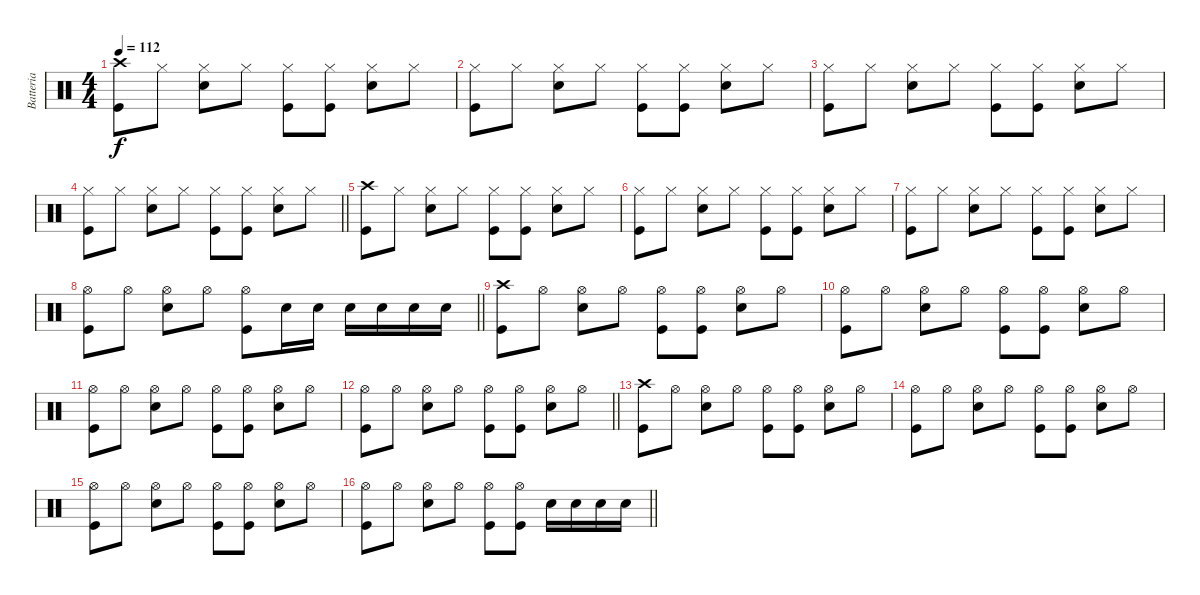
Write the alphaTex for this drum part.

\track ("Batteria" "Batteria") {instrument percussion}
\staff {score}
\articulation defaults
\ts (4 4)
\tempo 112
\clef neutral
\ks c
("Crash high (hit)" "Kick (hit)").8{dy f} "Hi-Hat (closed)".8 ("Snare (hit) 2" "Hi-Hat (closed)").8 "Hi-Hat (closed)".8 ("Kick (hit)" "Hi-Hat (closed)").8 ("Kick (hit)" "Hi-Hat (closed)").8 ("Snare (hit) 2" "Hi-Hat (closed)").8 "Hi-Hat (closed)".8 |
("Hi-Hat (closed)" "Kick (hit)").8 "Hi-Hat (closed)".8 ("Snare (hit) 2" "Hi-Hat (closed)").8 "Hi-Hat (closed)".8 ("Kick (hit)" "Hi-Hat (closed)").8 ("Kick (hit)" "Hi-Hat (closed)").8 ("Snare (hit) 2" "Hi-Hat (closed)").8 "Hi-Hat (closed)".8 |
("Hi-Hat (closed)" "Kick (hit)").8 "Hi-Hat (closed)".8 ("Snare (hit) 2" "Hi-Hat (closed)").8 "Hi-Hat (closed)".8 ("Kick (hit)" "Hi-Hat (closed)").8 ("Kick (hit)" "Hi-Hat (closed)").8 ("Snare (hit) 2" "Hi-Hat (closed)").8 "Hi-Hat (closed)".8 |
\barLineRight lightlight
("Hi-Hat (closed)" "Kick (hit)").8 "Hi-Hat (closed)".8 ("Snare (hit) 2" "Hi-Hat (closed)").8 "Hi-Hat (closed)".8 ("Kick (hit)" "Hi-Hat (closed)").8 ("Kick (hit)" "Hi-Hat (closed)").8 ("Snare (hit) 2" "Hi-Hat (closed)").8 "Hi-Hat (closed)".8 |
("Crash high (hit)" "Kick (hit)").8 "Hi-Hat (closed)".8 ("Snare (hit) 2" "Hi-Hat (closed)").8 "Hi-Hat (closed)".8 ("Kick (hit)" "Hi-Hat (closed)").8 ("Kick (hit)" "Hi-Hat (closed)").8 ("Snare (hit) 2" "Hi-Hat (closed)").8 "Hi-Hat (closed)".8 |
("Hi-Hat (closed)" "Kick (hit)").8 "Hi-Hat (closed)".8 ("Snare (hit) 2" "Hi-Hat (closed)").8 "Hi-Hat (closed)".8 ("Kick (hit)" "Hi-Hat (closed)").8 ("Kick (hit)" "Hi-Hat (closed)").8 ("Snare (hit) 2" "Hi-Hat (closed)").8 "Hi-Hat (closed)".8 |
("Hi-Hat (closed)" "Kick (hit)").8 "Hi-Hat (closed)".8 ("Snare (hit) 2" "Hi-Hat (closed)").8 "Hi-Hat (closed)".8 ("Kick (hit)" "Hi-Hat (closed)").8 ("Kick (hit)" "Hi-Hat (closed)").8 ("Snare (hit) 2" "Hi-Hat (closed)").8 "Hi-Hat (closed)".8 |
\barLineRight lightlight
("Hi-Hat (open)" "Kick (hit)").8 "Hi-Hat (open)".8 ("Snare (hit) 2" "Hi-Hat (open)").8 "Hi-Hat (open)".8 ("Kick (hit)" "Hi-Hat (open)").8 "Snare (hit) 2".16 "Snare (hit) 2".16 "Snare (hit) 2".16 "Snare (hit) 2".16 "Snare (hit) 2".16 "Snare (hit) 2".16 |
("Kick (hit)" "Crash high (hit)").8 "Hi-Hat (open)".8 ("Snare (hit) 2" "Hi-Hat (open)").8 "Hi-Hat (open)".8 ("Kick (hit)" "Hi-Hat (open)").8 ("Kick (hit)" "Hi-Hat (open)").8 ("Snare (hit) 2" "Hi-Hat (open)").8 "Hi-Hat (open)".8 |
("Kick (hit)" "Hi-Hat (open)").8 "Hi-Hat (open)".8 ("Snare (hit) 2" "Hi-Hat (open)").8 "Hi-Hat (open)".8 ("Kick (hit)" "Hi-Hat (open)").8 ("Kick (hit)" "Hi-Hat (open)").8 ("Snare (hit) 2" "Hi-Hat (open)").8 "Hi-Hat (open)".8 |
("Kick (hit)" "Hi-Hat (open)").8 "Hi-Hat (open)".8 ("Snare (hit) 2" "Hi-Hat (open)").8 "Hi-Hat (open)".8 ("Kick (hit)" "Hi-Hat (open)").8 ("Kick (hit)" "Hi-Hat (open)").8 ("Snare (hit) 2" "Hi-Hat (open)").8 "Hi-Hat (open)".8 |
\barLineRight lightlight
("Kick (hit)" "Hi-Hat (open)").8 "Hi-Hat (open)".8 ("Snare (hit) 2" "Hi-Hat (open)").8 "Hi-Hat (open)".8 ("Kick (hit)" "Hi-Hat (open)").8 ("Kick (hit)" "Hi-Hat (open)").8 ("Snare (hit) 2" "Hi-Hat (open)").8 "Hi-Hat (open)".8 |
("Kick (hit)" "Crash high (hit)").8 "Hi-Hat (open)".8 ("Snare (hit) 2" "Hi-Hat (open)").8 "Hi-Hat (open)".8 ("Kick (hit)" "Hi-Hat (open)").8 ("Kick (hit)" "Hi-Hat (open)").8 ("Snare (hit) 2" "Hi-Hat (open)").8 "Hi-Hat (open)".8 |
("Kick (hit)" "Hi-Hat (open)").8 "Hi-Hat (open)".8 ("Snare (hit) 2" "Hi-Hat (open)").8 "Hi-Hat (open)".8 ("Kick (hit)" "Hi-Hat (open)").8 ("Kick (hit)" "Hi-Hat (open)").8 ("Snare (hit) 2" "Hi-Hat (open)").8 "Hi-Hat (open)".8 |
("Kick (hit)" "Hi-Hat (open)").8 "Hi-Hat (open)".8 ("Snare (hit) 2" "Hi-Hat (open)").8 "Hi-Hat (open)".8 ("Kick (hit)" "Hi-Hat (open)").8 ("Kick (hit)" "Hi-Hat (open)").8 ("Snare (hit) 2" "Hi-Hat (open)").8 "Hi-Hat (open)".8 |
\barLineRight lightlight
("Kick (hit)" "Hi-Hat (open)").8 "Hi-Hat (open)".8 ("Snare (hit) 2" "Hi-Hat (open)").8 "Hi-Hat (open)".8 ("Kick (hit)" "Hi-Hat (open)").8 ("Kick (hit)" "Hi-Hat (open)").8 "Snare (hit) 2".16 "Snare (hit) 2".16 "Snare (hit) 2".16 "Snare (hit) 2".16
